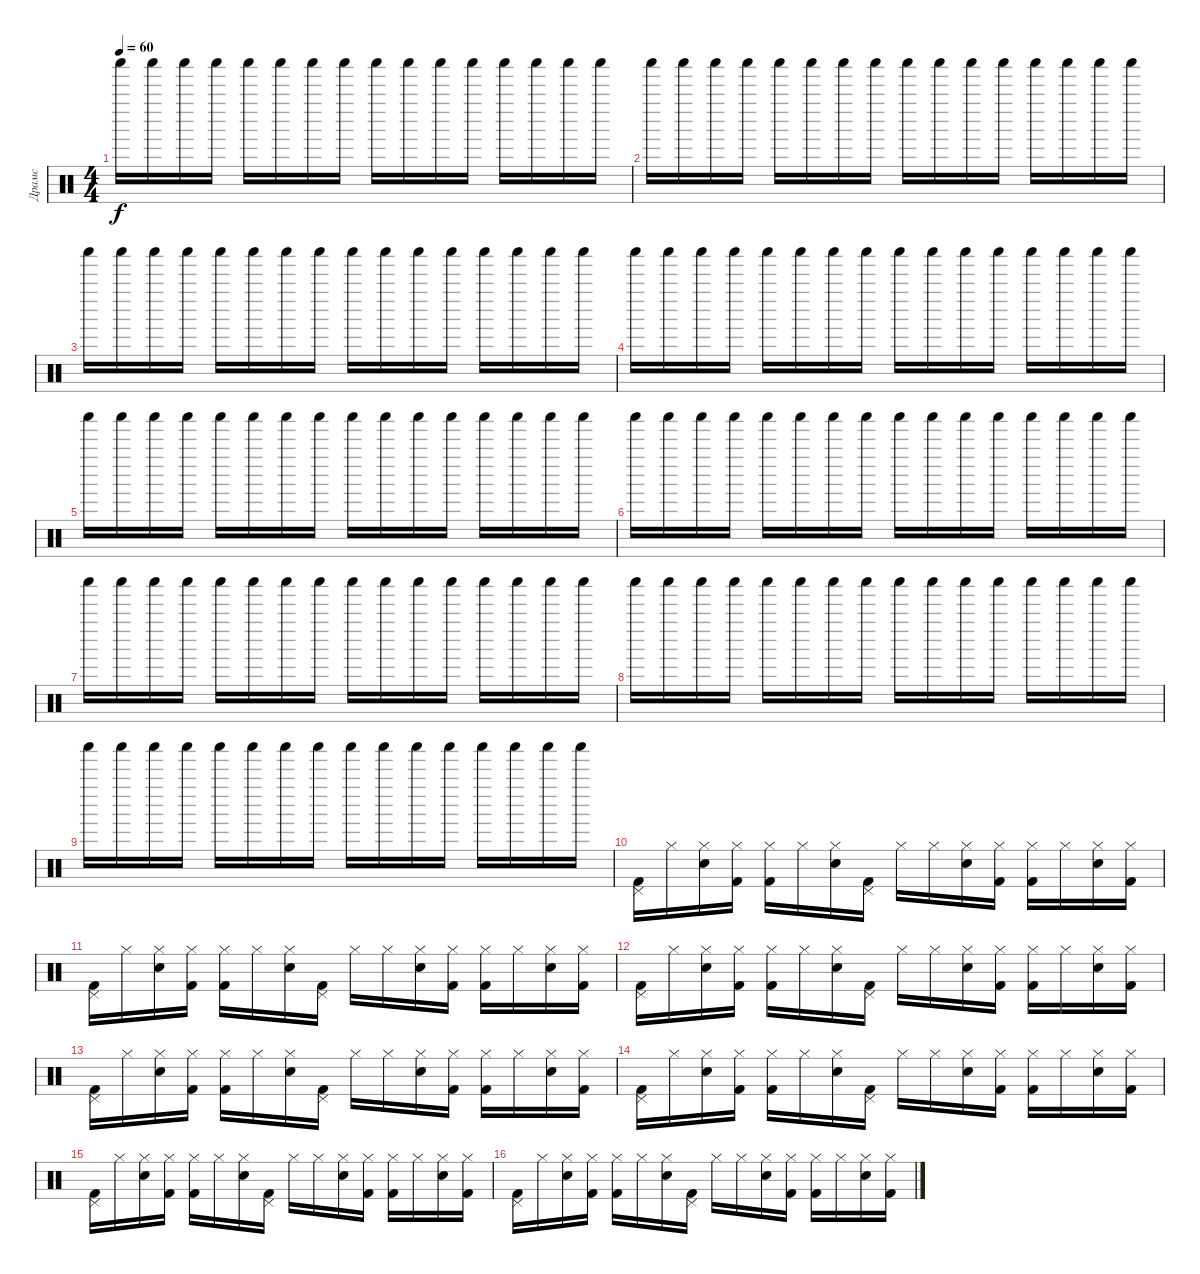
\track ("Драмс" "Драмс") {instrument percussion}
\staff {score}
\articulation defaults
\ts (4 4)
\tempo 60
\clef neutral
\ks c "Shaker (hit)".16{dy f} "Shaker (hit)".16 "Shaker (hit)".16 "Shaker (hit)".16 "Shaker (hit)".16 "Shaker (hit)".16 "Shaker (hit)".16 "Shaker (hit)".16 "Shaker (hit)".16 "Shaker (hit)".16 "Shaker (hit)".16 "Shaker (hit)".16 "Shaker (hit)".16 "Shaker (hit)".16 "Shaker (hit)".16 "Shaker (hit)".16
|
"Shaker (hit)".16 "Shaker (hit)".16 "Shaker (hit)".16 "Shaker (hit)".16 "Shaker (hit)".16 "Shaker (hit)".16 "Shaker (hit)".16 "Shaker (hit)".16 "Shaker (hit)".16 "Shaker (hit)".16 "Shaker (hit)".16 "Shaker (hit)".16 "Shaker (hit)".16 "Shaker (hit)".16 "Shaker (hit)".16 "Shaker (hit)".16 |
"Shaker (hit)".16 "Shaker (hit)".16 "Shaker (hit)".16 "Shaker (hit)".16 "Shaker (hit)".16 "Shaker (hit)".16 "Shaker (hit)".16 "Shaker (hit)".16 "Shaker (hit)".16 "Shaker (hit)".16 "Shaker (hit)".16 "Shaker (hit)".16 "Shaker (hit)".16 "Shaker (hit)".16 "Shaker (hit)".16 "Shaker (hit)".16 |
"Shaker (hit)".16 "Shaker (hit)".16 "Shaker (hit)".16 "Shaker (hit)".16 "Shaker (hit)".16 "Shaker (hit)".16 "Shaker (hit)".16 "Shaker (hit)".16 "Shaker (hit)".16 "Shaker (hit)".16 "Shaker (hit)".16 "Shaker (hit)".16 "Shaker (hit)".16 "Shaker (hit)".16 "Shaker (hit)".16 "Shaker (hit)".16 |
"Shaker (hit)".16 "Shaker (hit)".16 "Shaker (hit)".16 "Shaker (hit)".16 "Shaker (hit)".16 "Shaker (hit)".16 "Shaker (hit)".16 "Shaker (hit)".16 "Shaker (hit)".16 "Shaker (hit)".16 "Shaker (hit)".16 "Shaker (hit)".16 "Shaker (hit)".16 "Shaker (hit)".16 "Shaker (hit)".16 "Shaker (hit)".16 |
"Shaker (hit)".16 "Shaker (hit)".16 "Shaker (hit)".16 "Shaker (hit)".16 "Shaker (hit)".16 "Shaker (hit)".16 "Shaker (hit)".16 "Shaker (hit)".16 "Shaker (hit)".16 "Shaker (hit)".16 "Shaker (hit)".16 "Shaker (hit)".16 "Shaker (hit)".16 "Shaker (hit)".16 "Shaker (hit)".16 "Shaker (hit)".16 |
"Shaker (hit)".16 "Shaker (hit)".16 "Shaker (hit)".16 "Shaker (hit)".16 "Shaker (hit)".16 "Shaker (hit)".16 "Shaker (hit)".16 "Shaker (hit)".16 "Shaker (hit)".16 "Shaker (hit)".16 "Shaker (hit)".16 "Shaker (hit)".16 "Shaker (hit)".16 "Shaker (hit)".16 "Shaker (hit)".16 "Shaker (hit)".16 |
"Shaker (hit)".16 "Shaker (hit)".16 "Shaker (hit)".16 "Shaker (hit)".16 "Shaker (hit)".16 "Shaker (hit)".16 "Shaker (hit)".16 "Shaker (hit)".16 "Shaker (hit)".16 "Shaker (hit)".16 "Shaker (hit)".16 "Shaker (hit)".16 "Shaker (hit)".16 "Shaker (hit)".16 "Shaker (hit)".16 "Shaker (hit)".16 |
"Shaker (hit)".16 "Shaker (hit)".16 "Shaker (hit)".16 "Shaker (hit)".16 "Shaker (hit)".16 "Shaker (hit)".16 "Shaker (hit)".16 "Shaker (hit)".16 "Shaker (hit)".16 "Shaker (hit)".16 "Shaker (hit)".16 "Shaker (hit)".16 "Shaker (hit)".16 "Shaker (hit)".16 "Shaker (hit)".16 "Shaker (hit)".16 |
("Kick (hit) 2" "Pedal Hi-Hat (hit)").16 "Hi-Hat (closed)".16 ("Snare (hit) 2" "Hi-Hat (closed)").16 ("Kick (hit) 2" "Hi-Hat (closed)").16 ("Kick (hit) 2" "Hi-Hat (closed)").16 "Hi-Hat (closed)".16 ("Snare (hit) 2" "Hi-Hat (closed)").16 ("Kick (hit) 2" "Pedal Hi-Hat (hit)").16 "Hi-Hat (closed)".16 "Hi-Hat (closed)".16 ("Snare (hit) 2" "Hi-Hat (closed)").16 ("Kick (hit) 2" "Hi-Hat (closed)").16 ("Kick (hit) 2" "Hi-Hat (closed)").16 "Hi-Hat (closed)".16 ("Snare (hit) 2" "Hi-Hat (closed)").16 ("Kick (hit) 2" "Hi-Hat (closed)").16 |
("Kick (hit) 2" "Pedal Hi-Hat (hit)").16 "Hi-Hat (closed)".16 ("Snare (hit) 2" "Hi-Hat (closed)").16 ("Kick (hit) 2" "Hi-Hat (closed)").16 ("Kick (hit) 2" "Hi-Hat (closed)").16 "Hi-Hat (closed)".16 ("Snare (hit) 2" "Hi-Hat (closed)").16 ("Kick (hit) 2" "Pedal Hi-Hat (hit)").16 "Hi-Hat (closed)".16 "Hi-Hat (closed)".16 ("Snare (hit) 2" "Hi-Hat (closed)").16 ("Kick (hit) 2" "Hi-Hat (closed)").16 ("Kick (hit) 2" "Hi-Hat (closed)").16 "Hi-Hat (closed)".16 ("Snare (hit) 2" "Hi-Hat (closed)").16 ("Kick (hit) 2" "Hi-Hat (closed)").16 |
("Kick (hit) 2" "Pedal Hi-Hat (hit)").16 "Hi-Hat (closed)".16 ("Snare (hit) 2" "Hi-Hat (closed)").16 ("Kick (hit) 2" "Hi-Hat (closed)").16 ("Kick (hit) 2" "Hi-Hat (closed)").16 "Hi-Hat (closed)".16 ("Snare (hit) 2" "Hi-Hat (closed)").16 ("Kick (hit) 2" "Pedal Hi-Hat (hit)").16 "Hi-Hat (closed)".16 "Hi-Hat (closed)".16 ("Snare (hit) 2" "Hi-Hat (closed)").16 ("Kick (hit) 2" "Hi-Hat (closed)").16 ("Kick (hit) 2" "Hi-Hat (closed)").16 "Hi-Hat (closed)".16 ("Snare (hit) 2" "Hi-Hat (closed)").16 ("Kick (hit) 2" "Hi-Hat (closed)").16 |
("Kick (hit) 2" "Pedal Hi-Hat (hit)").16 "Hi-Hat (closed)".16 ("Snare (hit) 2" "Hi-Hat (closed)").16 ("Kick (hit) 2" "Hi-Hat (closed)").16 ("Kick (hit) 2" "Hi-Hat (closed)").16 "Hi-Hat (closed)".16 ("Snare (hit) 2" "Hi-Hat (closed)").16 ("Kick (hit) 2" "Pedal Hi-Hat (hit)").16 "Hi-Hat (closed)".16 "Hi-Hat (closed)".16 ("Snare (hit) 2" "Hi-Hat (closed)").16 ("Kick (hit) 2" "Hi-Hat (closed)").16 ("Kick (hit) 2" "Hi-Hat (closed)").16 "Hi-Hat (closed)".16 ("Snare (hit) 2" "Hi-Hat (closed)").16 ("Kick (hit) 2" "Hi-Hat (closed)").16 |
("Kick (hit) 2" "Pedal Hi-Hat (hit)").16 "Hi-Hat (closed)".16 ("Snare (hit) 2" "Hi-Hat (closed)").16 ("Kick (hit) 2" "Hi-Hat (closed)").16 ("Kick (hit) 2" "Hi-Hat (closed)").16 "Hi-Hat (closed)".16 ("Snare (hit) 2" "Hi-Hat (closed)").16 ("Kick (hit) 2" "Pedal Hi-Hat (hit)").16 "Hi-Hat (closed)".16 "Hi-Hat (closed)".16 ("Snare (hit) 2" "Hi-Hat (closed)").16 ("Kick (hit) 2" "Hi-Hat (closed)").16 ("Kick (hit) 2" "Hi-Hat (closed)").16 "Hi-Hat (closed)".16 ("Snare (hit) 2" "Hi-Hat (closed)").16 ("Kick (hit) 2" "Hi-Hat (closed)").16 |
("Kick (hit) 2" "Pedal Hi-Hat (hit)").16 "Hi-Hat (closed)".16 ("Snare (hit) 2" "Hi-Hat (closed)").16 ("Kick (hit) 2" "Hi-Hat (closed)").16 ("Kick (hit) 2" "Hi-Hat (closed)").16 "Hi-Hat (closed)".16 ("Snare (hit) 2" "Hi-Hat (closed)").16 ("Kick (hit) 2" "Pedal Hi-Hat (hit)").16 "Hi-Hat (closed)".16 "Hi-Hat (closed)".16 ("Snare (hit) 2" "Hi-Hat (closed)").16 ("Kick (hit) 2" "Hi-Hat (closed)").16 ("Kick (hit) 2" "Hi-Hat (closed)").16 "Hi-Hat (closed)".16 ("Snare (hit) 2" "Hi-Hat (closed)").16 ("Kick (hit) 2" "Hi-Hat (closed)").16 |
("Kick (hit) 2" "Pedal Hi-Hat (hit)").16 "Hi-Hat (closed)".16 ("Snare (hit) 2" "Hi-Hat (closed)").16 ("Kick (hit) 2" "Hi-Hat (closed)").16 ("Kick (hit) 2" "Hi-Hat (closed)").16 "Hi-Hat (closed)".16 ("Snare (hit) 2" "Hi-Hat (closed)").16 ("Kick (hit) 2" "Pedal Hi-Hat (hit)").16 "Hi-Hat (closed)".16 "Hi-Hat (closed)".16 ("Snare (hit) 2" "Hi-Hat (closed)").16 ("Kick (hit) 2" "Hi-Hat (closed)").16 ("Kick (hit) 2" "Hi-Hat (closed)").16 "Hi-Hat (closed)".16 ("Snare (hit) 2" "Hi-Hat (closed)").16 ("Kick (hit) 2" "Hi-Hat (closed)").16
